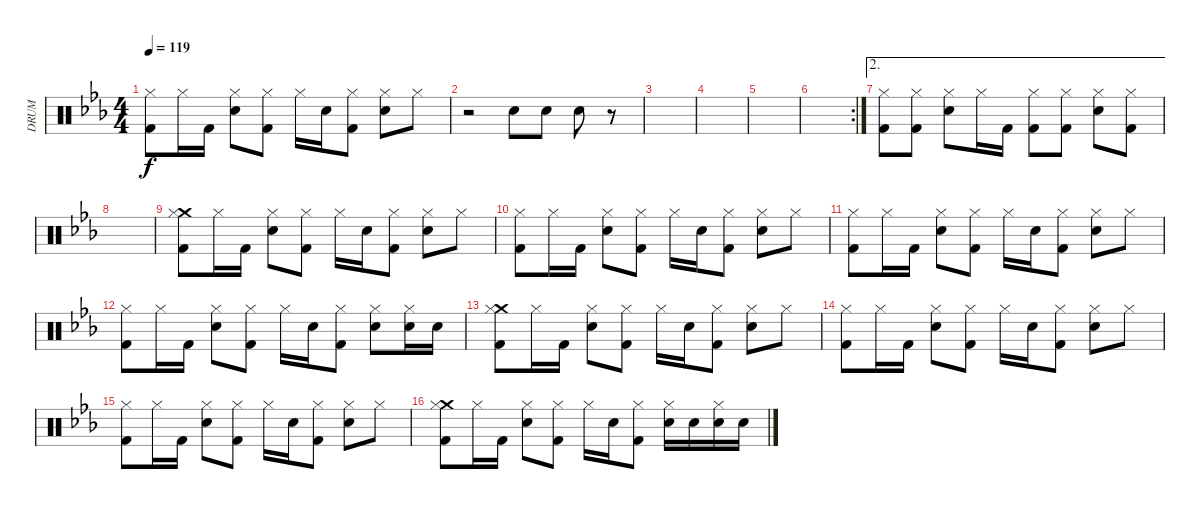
\track ("DRUM" "DRUM") {instrument percussion}
\staff {score}
\articulation defaults
\ts (4 4)
\tempo 119
\clef neutral
\ks eb
("Hi-Hat (closed)" "Kick (hit) 2").8{dy f} "Hi-Hat (closed)".16 "Kick (hit) 2".16 ("Hi-Hat (closed)" "Snare (hit) 2").8 ("Hi-Hat (closed)" "Kick (hit) 2").8 "Hi-Hat (closed)".16 "Snare (hit) 2".16 ("Hi-Hat (closed)" "Kick (hit) 2").8 ("Hi-Hat (closed)" "Snare (hit) 2").8 "Hi-Hat (closed)".8 |
r.2 "Snare (hit) 2".8 "Snare (hit) 2".8 "Snare (hit) 2".8 r.8 |
|
|
|
\rc 2
|
\ae 2
("Hi-Hat (closed)" "Kick (hit) 2").8 ("Hi-Hat (closed)" "Kick (hit) 2").8 ("Hi-Hat (closed)" "Snare (hit) 2").8 "Hi-Hat (closed)".16 "Kick (hit) 2".16 ("Hi-Hat (closed)" "Kick (hit) 2").8 ("Hi-Hat (closed)" "Kick (hit) 2").8 ("Hi-Hat (closed)" "Snare (hit) 2").8 ("Hi-Hat (closed)" "Kick (hit) 2").8 |
|
("Crash medium (hit)" "Hi-Hat (closed)" "Kick (hit) 2").8 "Hi-Hat (closed)".16 "Kick (hit) 2".16 ("Hi-Hat (closed)" "Snare (hit) 2").8 ("Hi-Hat (closed)" "Kick (hit) 2").8 "Hi-Hat (closed)".16 "Snare (hit) 2".16 ("Hi-Hat (closed)" "Kick (hit) 2").8 ("Hi-Hat (closed)" "Snare (hit) 2").8 "Hi-Hat (closed)".8 |
("Hi-Hat (closed)" "Kick (hit) 2").8 "Hi-Hat (closed)".16 "Kick (hit) 2".16 ("Hi-Hat (closed)" "Snare (hit) 2").8 ("Hi-Hat (closed)" "Kick (hit) 2").8 "Hi-Hat (closed)".16 "Snare (hit) 2".16 ("Hi-Hat (closed)" "Kick (hit) 2").8 ("Hi-Hat (closed)" "Snare (hit) 2").8 "Hi-Hat (closed)".8 |
("Hi-Hat (closed)" "Kick (hit) 2").8 "Hi-Hat (closed)".16 "Kick (hit) 2".16 ("Hi-Hat (closed)" "Snare (hit) 2").8 ("Hi-Hat (closed)" "Kick (hit) 2").8 "Hi-Hat (closed)".16 "Snare (hit) 2".16 ("Hi-Hat (closed)" "Kick (hit) 2").8 ("Hi-Hat (closed)" "Snare (hit) 2").8 "Hi-Hat (closed)".8 |
("Hi-Hat (closed)" "Kick (hit) 2").8 "Hi-Hat (closed)".16 "Kick (hit) 2".16 ("Hi-Hat (closed)" "Snare (hit) 2").8 ("Hi-Hat (closed)" "Kick (hit) 2").8 "Hi-Hat (closed)".16 "Snare (hit) 2".16 ("Hi-Hat (closed)" "Kick (hit) 2").8 ("Hi-Hat (closed)" "Snare (hit) 2").8 ("Hi-Hat (closed)" "Snare (hit) 2").16 "Snare (hit) 2".16 |
("Crash medium (hit)" "Hi-Hat (closed)" "Kick (hit) 2").8 "Hi-Hat (closed)".16 "Kick (hit) 2".16 ("Hi-Hat (closed)" "Snare (hit) 2").8 ("Hi-Hat (closed)" "Kick (hit) 2").8 "Hi-Hat (closed)".16 "Snare (hit) 2".16 ("Hi-Hat (closed)" "Kick (hit) 2").8 ("Hi-Hat (closed)" "Snare (hit) 2").8 "Hi-Hat (closed)".8 |
("Hi-Hat (closed)" "Kick (hit) 2").8 "Hi-Hat (closed)".16 "Kick (hit) 2".16 ("Hi-Hat (closed)" "Snare (hit) 2").8 ("Hi-Hat (closed)" "Kick (hit) 2").8 "Hi-Hat (closed)".16 "Snare (hit) 2".16 ("Hi-Hat (closed)" "Kick (hit) 2").8 ("Hi-Hat (closed)" "Snare (hit) 2").8 "Hi-Hat (closed)".8 |
("Hi-Hat (closed)" "Kick (hit) 2").8 "Hi-Hat (closed)".16 "Kick (hit) 2".16 ("Hi-Hat (closed)" "Snare (hit) 2").8 ("Hi-Hat (closed)" "Kick (hit) 2").8 "Hi-Hat (closed)".16 "Snare (hit) 2".16 ("Hi-Hat (closed)" "Kick (hit) 2").8 ("Hi-Hat (closed)" "Snare (hit) 2").8 "Hi-Hat (closed)".8 |
("Crash medium (hit)" "Hi-Hat (closed)" "Kick (hit) 2").8 "Hi-Hat (closed)".16 "Kick (hit) 2".16 ("Hi-Hat (closed)" "Snare (hit) 2").8 ("Hi-Hat (closed)" "Kick (hit) 2").8 "Hi-Hat (closed)".16 "Snare (hit) 2".16 ("Hi-Hat (closed)" "Kick (hit) 2").8 ("Hi-Hat (closed)" "Snare (hit) 2").16 "Snare (hit) 2".16 ("Hi-Hat (closed)" "Snare (hit) 2").16 "Snare (hit) 2".16
